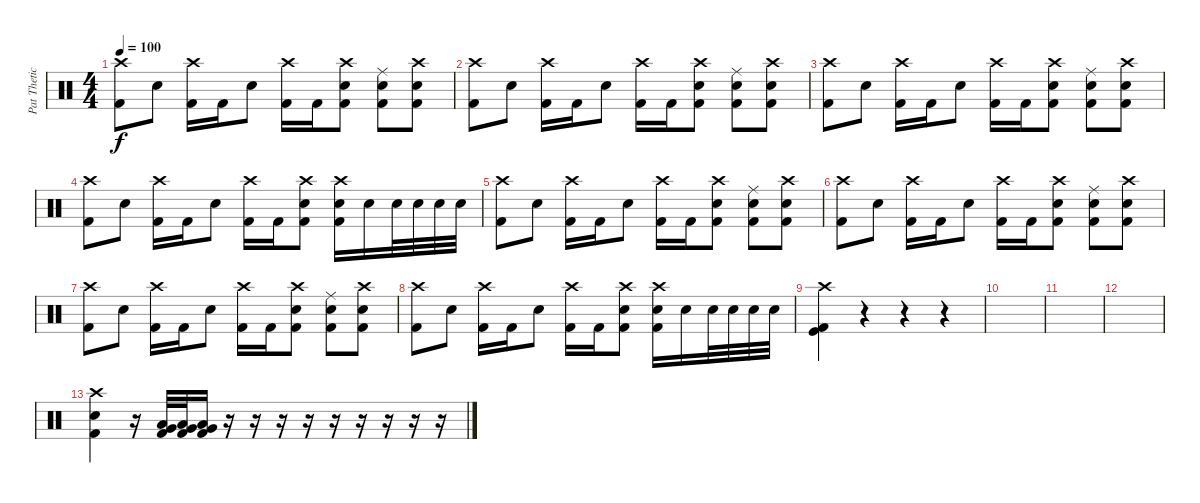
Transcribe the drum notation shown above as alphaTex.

\track ("Pat Thetic" "Pat Thetic") {instrument percussion}
\staff {score}
\articulation defaults
\ts (4 4)
\tempo 100
\clef neutral
\ks c
("Crash high (hit)" "Kick (hit) 2").8{dy f} "Snare (hit) 2".8 ("Crash high (hit)" "Kick (hit) 2").16 "Kick (hit) 2".16 "Snare (hit) 2".8 ("Crash high (hit)" "Kick (hit) 2").16 "Kick (hit) 2".16 ("Kick (hit) 2" "Crash high (hit)" "Snare (hit) 2").8 ("Kick (hit) 2" "Ride (middle)" "Snare (hit) 2").8 ("Kick (hit) 2" "Crash high (hit)" "Snare (hit) 2").8 |
("Crash high (hit)" "Kick (hit) 2").8 "Snare (hit) 2".8 ("Crash high (hit)" "Kick (hit) 2").16 "Kick (hit) 2".16 "Snare (hit) 2".8 ("Crash high (hit)" "Kick (hit) 2").16 "Kick (hit) 2".16 ("Kick (hit) 2" "Crash high (hit)" "Snare (hit) 2").8 ("Kick (hit) 2" "Ride (middle)" "Snare (hit) 2").8 ("Kick (hit) 2" "Crash high (hit)" "Snare (hit) 2").8 |
("Crash high (hit)" "Kick (hit) 2").8 "Snare (hit) 2".8 ("Crash high (hit)" "Kick (hit) 2").16 "Kick (hit) 2".16 "Snare (hit) 2".8 ("Crash high (hit)" "Kick (hit) 2").16 "Kick (hit) 2".16 ("Kick (hit) 2" "Crash high (hit)" "Snare (hit) 2").8 ("Kick (hit) 2" "Ride (middle)" "Snare (hit) 2").8 ("Kick (hit) 2" "Crash high (hit)" "Snare (hit) 2").8 |
("Crash high (hit)" "Kick (hit) 2").8 "Snare (hit) 2".8 ("Crash high (hit)" "Kick (hit) 2").16 "Kick (hit) 2".16 "Snare (hit) 2".8 ("Crash high (hit)" "Kick (hit) 2").16 "Kick (hit) 2".16 ("Kick (hit) 2" "Crash high (hit)" "Snare (hit) 2").8 ("Kick (hit) 2" "Crash high (hit)" "Snare (hit) 2").16 "Snare (hit) 2".16 "Snare (hit) 2".32 "Snare (hit) 2".32 "Snare (hit) 2".32 "Snare (hit) 2".32 |
("Crash high (hit)" "Kick (hit) 2").8 "Snare (hit) 2".8 ("Crash high (hit)" "Kick (hit) 2").16 "Kick (hit) 2".16 "Snare (hit) 2".8 ("Crash high (hit)" "Kick (hit) 2").16 "Kick (hit) 2".16 ("Kick (hit) 2" "Crash high (hit)" "Snare (hit) 2").8 ("Kick (hit) 2" "Ride (middle)" "Snare (hit) 2").8 ("Kick (hit) 2" "Crash high (hit)" "Snare (hit) 2").8 |
("Crash high (hit)" "Kick (hit) 2").8 "Snare (hit) 2".8 ("Crash high (hit)" "Kick (hit) 2").16 "Kick (hit) 2".16 "Snare (hit) 2".8 ("Crash high (hit)" "Kick (hit) 2").16 "Kick (hit) 2".16 ("Kick (hit) 2" "Crash high (hit)" "Snare (hit) 2").8 ("Kick (hit) 2" "Ride (middle)" "Snare (hit) 2").8 ("Kick (hit) 2" "Crash high (hit)" "Snare (hit) 2").8 |
("Crash high (hit)" "Kick (hit) 2").8 "Snare (hit) 2".8 ("Crash high (hit)" "Kick (hit) 2").16 "Kick (hit) 2".16 "Snare (hit) 2".8 ("Crash high (hit)" "Kick (hit) 2").16 "Kick (hit) 2".16 ("Kick (hit) 2" "Crash high (hit)" "Snare (hit) 2").8 ("Kick (hit) 2" "Ride (middle)" "Snare (hit) 2").8 ("Kick (hit) 2" "Crash high (hit)" "Snare (hit) 2").8 |
("Crash high (hit)" "Kick (hit) 2").8 "Snare (hit) 2".8 ("Crash high (hit)" "Kick (hit) 2").16 "Kick (hit) 2".16 "Snare (hit) 2".8 ("Crash high (hit)" "Kick (hit) 2").16 "Kick (hit) 2".16 ("Kick (hit) 2" "Crash high (hit)" "Snare (hit) 2").8 ("Kick (hit) 2" "Crash high (hit)" "Snare (hit) 2").16 "Snare (hit) 2".16 "Snare (hit) 2".32 "Snare (hit) 2".32 "Snare (hit) 2".32 "Snare (hit) 2".32 |
("Crash high (hit)" "Kick (hit) 2" "Kick (hit)").4 r.4 r.4 r.4 |
|
|
|
("Snare (hit) 2" "Kick (hit) 2" "Crash high (hit)").4 r.16 ("Very Low Tom (hit)" "Low Floor Tom (hit)" "Kick (hit) 2").32 ("Very Low Tom (hit)" "Low Floor Tom (hit)" "Kick (hit) 2").32 ("Very Low Tom (hit)" "Low Floor Tom (hit)" "Kick (hit) 2").16 r.16 r.16 r.16 r.16 r.16 r.16 r.16 r.16 r.16
